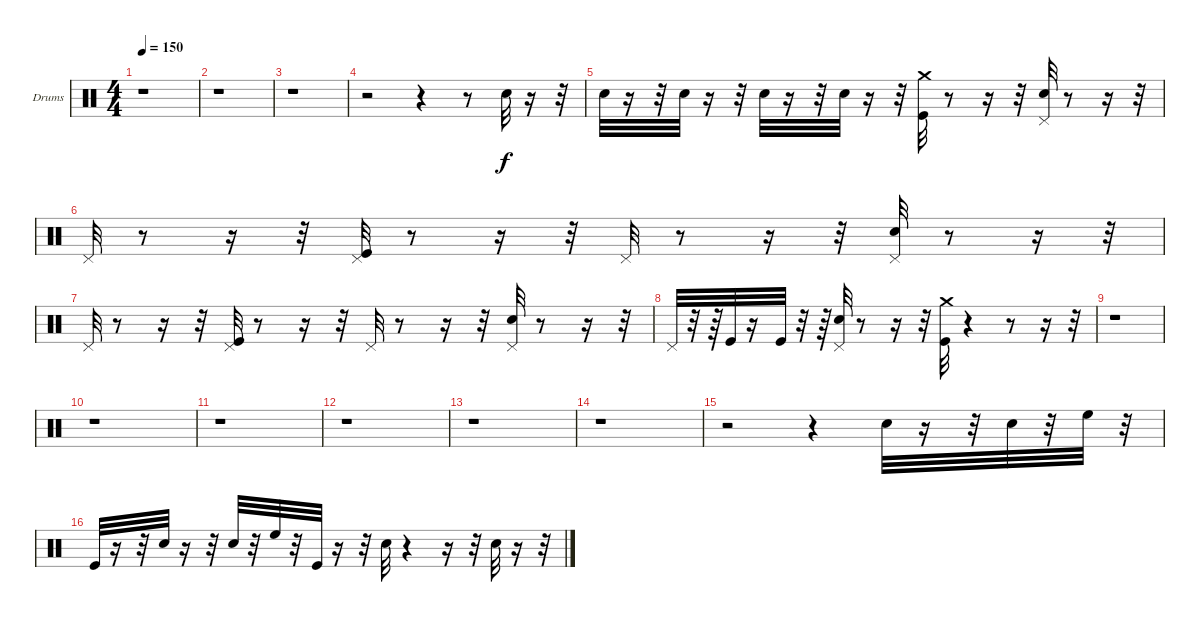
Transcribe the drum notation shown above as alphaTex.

\bracketExtendMode groupsimilarinstruments
\firstSystemTrackNameOrientation horizontal
\otherSystemsTrackNameOrientation horizontal
\track ("Drumkit" "Drums") {instrument percussion}
\staff {score}
\articulation defaults
\ts (4 4)
\tempo 150
\clef neutral
\ks c
r.1{dy f} |
r.1 |
r.1 |
r.2 r.4 r.8 "Snare (hit) 2".32 r.16 r.32 |
"Snare (hit) 2".32 r.16 r.32 "Snare (hit) 2".32 r.16 r.32 "Snare (hit) 2".32 r.16 r.32 "Snare (hit) 2".32 r.16 r.32 ("Crash medium (hit)" "Kick (hit)").32 r.8 r.16 r.32 ("Pedal Hi-Hat (hit)" "Snare (hit) 2").32 r.8 r.16 r.32 |
"Pedal Hi-Hat (hit)".32 r.8 r.16 r.32 ("Pedal Hi-Hat (hit)" "Kick (hit)").32 r.8 r.16 r.32 "Pedal Hi-Hat (hit)".32 r.8 r.16 r.32 ("Pedal Hi-Hat (hit)" "Snare (hit) 2").32 r.8 r.16 r.32 |
"Pedal Hi-Hat (hit)".32 r.8 r.16 r.32 ("Pedal Hi-Hat (hit)" "Kick (hit)").32 r.8 r.16 r.32 "Pedal Hi-Hat (hit)".32 r.8 r.16 r.32 ("Pedal Hi-Hat (hit)" "Snare (hit) 2").32 r.8 r.16 r.32 |
"Pedal Hi-Hat (hit)".32 r.32 r.64 "Kick (hit)".32 r.16 "Kick (hit)".32 r.32 r.64 ("Pedal Hi-Hat (hit)" "Snare (hit) 2").32 r.8 r.16 r.32 ("Crash medium (hit)" "Kick (hit)").32 r.4 r.8 r.16 r.32 |
r.1 |
r.1 |
r.1 |
r.1 |
r.1 |
r.1 |
r.2 r.4 "Snare (hit) 2".32 r.16 r.32 "Snare (hit) 2".32 r.32 "High Floor Tom (hit)".32 r.32 |
"Kick (hit)".32 r.16 r.32 "Snare (hit) 2".32 r.16 r.32 "Snare (hit) 2".32 r.32 "High Floor Tom (hit)".32 r.32 "Kick (hit)".32 r.16 r.32 "Snare (hit) 2".32 r.4 r.16 r.32 "Snare (hit) 2".32 r.16 r.32
